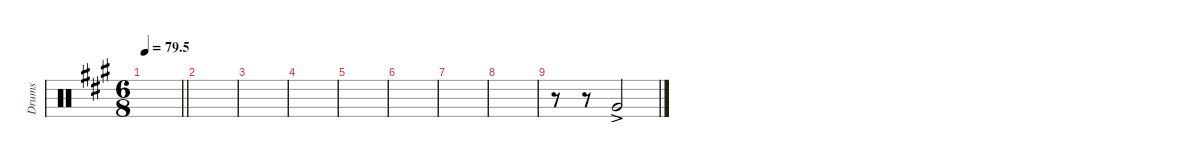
\defaultSystemsLayout 4
\hideDynamics
\bracketExtendMode nobrackets
\otherSystemsTrackNameOrientation horizontal
\track ("Tom 04" "Drums") {instrument percussion}
\staff {score}
\articulation defaults
\ts (6 8)
\tempo
79.5
\accidentals auto
\clef neutral
\ottava regular
\simile none
\scale
0.333333
\barLineRight lightlight
\ks a
|
\scale
0.333333 |
\scale
0.333333 |
\scale
0.333333 |
\scale
0.333333 |
\scale
0.333333 |
\scale
0.333333 |
\scale
0.333333 |
\scale
0.333333 r.8 r.8 "Very Low Tom (hit)"{ac acc forcenatural}.2 |
\scale
0.333333 |
\scale
0.333333 |
\scale
0.333333
